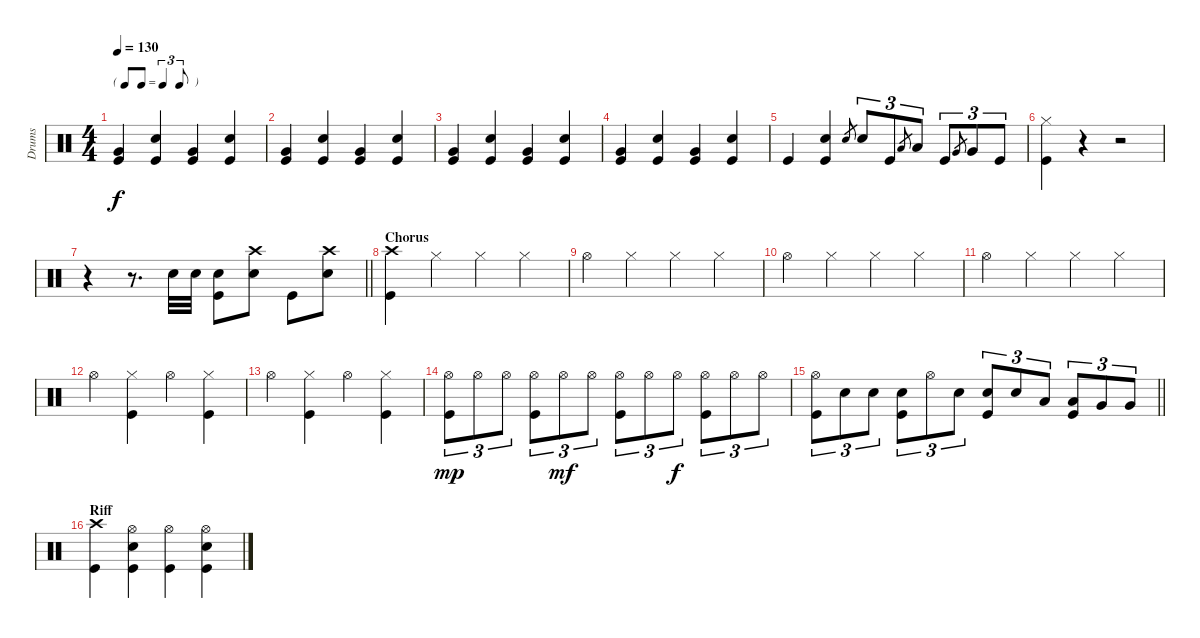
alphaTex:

\track ("Drums" "Drums") {instrument percussion}
\staff {score}
\articulation defaults
\ts (4 4)
\tf triplet8th
\tempo 130
\clef neutral
\ks c
("Kick (hit)" "Very Low Tom (hit)").4{dy f} ("Snare (hit) 2" "Kick (hit)").4 ("Kick (hit)" "Very Low Tom (hit)").4 ("Snare (hit) 2" "Kick (hit)").4 |
("Kick (hit)" "Very Low Tom (hit)").4 ("Snare (hit) 2" "Kick (hit)").4 ("Kick (hit)" "Very Low Tom (hit)").4 ("Snare (hit) 2" "Kick (hit)").4 |
("Kick (hit)" "Very Low Tom (hit)").4 ("Snare (hit) 2" "Kick (hit)").4 ("Kick (hit)" "Very Low Tom (hit)").4 ("Snare (hit) 2" "Kick (hit)").4 |
("Kick (hit)" "Very Low Tom (hit)").4 ("Snare (hit) 2" "Kick (hit)").4 ("Kick (hit)" "Very Low Tom (hit)").4 ("Snare (hit) 2" "Kick (hit)").4 |
"Kick (hit)".4 ("Snare (hit) 2" "Kick (hit)").4 "Snare (hit) 2".8{gr} "Snare (hit) 2".8{tu (3 2)} "Kick (hit)".8{tu (3 2)} "Low Tom (hit)".8{gr} "Low Tom (hit)".8{tu (3 2)} "Kick (hit)".8{tu (3 2)} "Very Low Tom (hit)".8{gr} "Very Low Tom (hit)".8{tu (3 2)} "Kick (hit)".8{tu (3 2)} |
("Hi-Hat (closed)" "Kick (hit)").4 r.4 r.2 |
\barLineRight lightlight
r.4 r.8{d} "Snare (hit) 2".32 "Snare (hit) 2".32 ("Kick (hit)" "Snare (hit) 2").8 ("Snare (hit) 2" "Crash high (hit)").8 "Kick (hit)".8 ("Crash high (hit)" "Snare (hit) 2").8 |
\section ("" "Chorus")
("Crash high (hit)" "Kick (hit)").4 "Hi-Hat (closed)".4 "Hi-Hat (closed)".4 "Hi-Hat (closed)".4 |
"Hi-Hat (open)".4 "Hi-Hat (closed)".4 "Hi-Hat (closed)".4 "Hi-Hat (closed)".4 |
"Hi-Hat (open)".4 "Hi-Hat (closed)".4 "Hi-Hat (closed)".4 "Hi-Hat (closed)".4 |
"Hi-Hat (open)".4 "Hi-Hat (closed)".4 "Hi-Hat (closed)".4 "Hi-Hat (closed)".4 |
"Hi-Hat (open)".4 ("Hi-Hat (closed)" "Kick (hit)").4 "Hi-Hat (open)".4 ("Hi-Hat (closed)" "Kick (hit)").4 |
"Hi-Hat (open)".4 ("Hi-Hat (closed)" "Kick (hit)").4 "Hi-Hat (open)".4 ("Hi-Hat (closed)" "Kick (hit)").4 |
("Kick (hit)" "Hi-Hat (open)").8{tu (3 2) dy mp} "Hi-Hat (open)".8{tu (3 2)} "Hi-Hat (open)".8{tu (3 2)} ("Kick (hit)" "Hi-Hat (open)").8{tu (3 2)} "Hi-Hat (open)".8{tu (3 2) dy mf} "Hi-Hat (open)".8{tu (3 2)} ("Kick (hit)" "Hi-Hat (open)").8{tu (3 2)} "Hi-Hat (open)".8{tu (3 2)} "Hi-Hat (open)".8{tu (3 2) dy f} ("Kick (hit)" "Hi-Hat (open)").8{tu (3 2)} "Hi-Hat (open)".8{tu (3 2)} "Hi-Hat (open)".8{tu (3 2)} |
\barLineRight lightlight
("Kick (hit)" "Hi-Hat (open)").8{tu (3 2)} "Snare (hit) 2".8{tu (3 2)} "Snare (hit) 2".8{tu (3 2)} ("Kick (hit)" "Snare (hit) 2").8{tu (3 2)} "Hi-Hat (open)".8{tu (3 2)} "Snare (hit) 2".8{tu (3 2)} ("Snare (hit) 2" "Kick (hit)").8{tu (3 2)} "Snare (hit) 2".8{tu (3 2)} "Low Tom (hit)".8{tu (3 2)} ("Kick (hit)" "Low Tom (hit)").8{tu (3 2)} "Very Low Tom (hit)".8{tu (3 2)} "Very Low Tom (hit)".8{tu (3 2)} |
\section ("" "Riff")
("Crash high (hit)" "Kick (hit)").4 ("Hi-Hat (open)" "Snare (hit) 2" "Kick (hit)").4 ("Hi-Hat (open)" "Kick (hit)").4 ("Hi-Hat (open)" "Snare (hit) 2" "Kick (hit)").4
